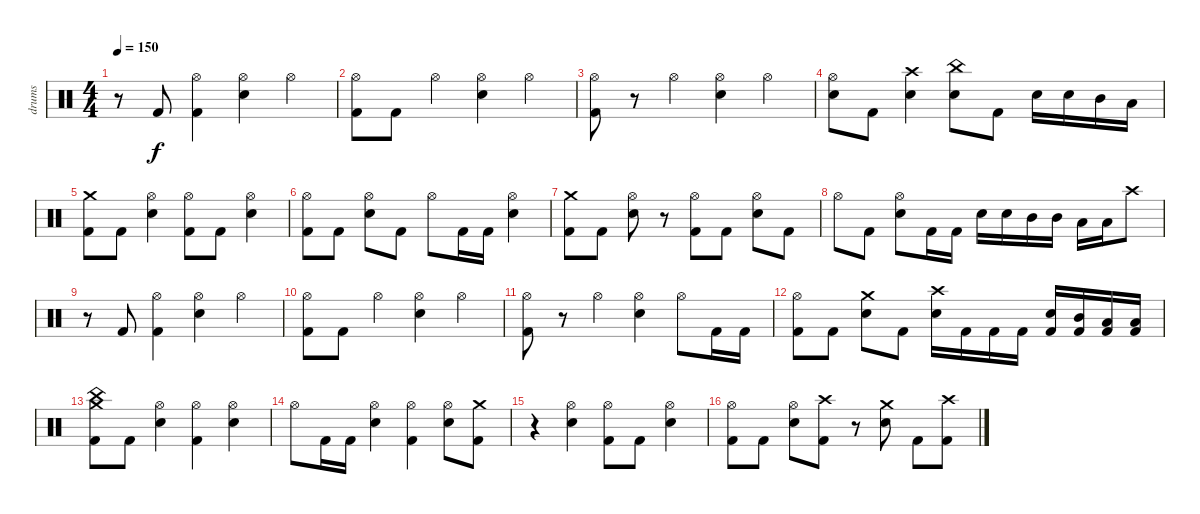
\track ("drums" "drums") {instrument percussion}
\staff {score}
\articulation defaults
\ts (4 4)
\tempo 150
\clef neutral
\ks c
r.8{dy f} "Kick (hit) 2".8 ("Hi-Hat (open)" "Kick (hit) 2").4 ("Hi-Hat (open)" "Electric Snare (hit)").4 "Hi-Hat (open)".4 |
("Hi-Hat (open)" "Kick (hit) 2").8 "Kick (hit) 2".8 "Hi-Hat (open)".4 ("Hi-Hat (open)" "Electric Snare (hit)").4 "Hi-Hat (open)".4 |
("Hi-Hat (open)" "Kick (hit) 2").8 r.8 "Hi-Hat (open)".4 ("Hi-Hat (open)" "Electric Snare (hit)").4 "Hi-Hat (open)".4 |
("Hi-Hat (open)" "Electric Snare (hit)").8 "Kick (hit) 2".8 ("Crash high (hit)" "Electric Snare (hit)").4 ("China (hit)" "Electric Snare (hit)").8 "Kick (hit) 2".8 "Electric Snare (hit)".16 "Electric Snare (hit)".16 "Mid Tom (hit)".16 "Low Tom (hit)".16 |
("Crash medium (hit)" "Kick (hit) 2").8 "Kick (hit) 2".8 ("Hi-Hat (open)" "Electric Snare (hit)").4 ("Hi-Hat (open)" "Kick (hit) 2").8 "Kick (hit) 2".8 ("Hi-Hat (open)" "Electric Snare (hit)").4 |
("Hi-Hat (open)" "Kick (hit) 2").8 "Kick (hit) 2".8 ("Hi-Hat (open)" "Electric Snare (hit)").8 "Kick (hit) 2".8 "Hi-Hat (open)".8 "Kick (hit) 2".16 "Kick (hit) 2".16 ("Hi-Hat (open)" "Electric Snare (hit)").4 |
("Crash medium (hit)" "Kick (hit) 2").8 "Kick (hit) 2".8 ("Hi-Hat (open)" "Electric Snare (hit)").8 r.8 ("Hi-Hat (open)" "Kick (hit) 2").8 "Kick (hit) 2".8 ("Hi-Hat (open)" "Electric Snare (hit)").8 "Kick (hit) 2".8 |
"Hi-Hat (open)".8 "Kick (hit) 2".8 ("Hi-Hat (open)" "Electric Snare (hit)").8 "Kick (hit) 2".16 "Kick (hit) 2".16 "Electric Snare (hit)".16 "Electric Snare (hit)".16 "Mid Tom (hit)".16 "Mid Tom (hit)".16 "Low Tom (hit)".16 "Low Tom (hit)".16 "Crash high (hit)".8 |
r.8 "Kick (hit) 2".8 ("Hi-Hat (open)" "Kick (hit) 2").4 ("Hi-Hat (open)" "Electric Snare (hit)").4 "Hi-Hat (open)".4 |
("Hi-Hat (open)" "Kick (hit) 2").8 "Kick (hit) 2".8 "Hi-Hat (open)".4 ("Hi-Hat (open)" "Electric Snare (hit)").4 "Hi-Hat (open)".4 |
("Hi-Hat (open)" "Kick (hit) 2").8 r.8 "Hi-Hat (open)".4 ("Hi-Hat (open)" "Electric Snare (hit)").4 "Hi-Hat (open)".8 "Kick (hit) 2".16 "Kick (hit) 2".16 |
("Hi-Hat (open)" "Kick (hit) 2").8 "Kick (hit) 2".8 ("Crash medium (hit)" "Electric Snare (hit)").8 "Kick (hit) 2".8 ("Crash high (hit)" "Electric Snare (hit)").16 "Kick (hit) 2".16 "Kick (hit) 2".16 "Kick (hit) 2".16 ("Electric Snare (hit)" "Kick (hit) 2").16 ("Mid Tom (hit)" "Kick (hit) 2").16 ("Low Tom (hit)" "Kick (hit) 2").16 ("Low Tom (hit)" "Kick (hit) 2").16 |
("China (hit)" "Crash medium (hit)" "Kick (hit) 2").8 "Kick (hit) 2".8 ("Hi-Hat (open)" "Electric Snare (hit)").4 ("Hi-Hat (open)" "Kick (hit) 2").4 ("Hi-Hat (open)" "Electric Snare (hit)").4 |
"Hi-Hat (open)".8 "Kick (hit) 2".16 "Kick (hit) 2".16 ("Hi-Hat (open)" "Electric Snare (hit)").4 ("Hi-Hat (open)" "Kick (hit) 2").4 ("Hi-Hat (open)" "Electric Snare (hit)").8 ("Crash medium (hit)" "Kick (hit) 2").8 |
r.4 ("Hi-Hat (open)" "Electric Snare (hit)").4 ("Hi-Hat (open)" "Kick (hit) 2").8 "Kick (hit) 2".8 ("Hi-Hat (open)" "Electric Snare (hit)").4 |
("Hi-Hat (open)" "Kick (hit) 2").8 "Kick (hit) 2".8 ("Hi-Hat (open)" "Electric Snare (hit)").8 ("Crash high (hit)" "Kick (hit) 2").8 r.8 ("Crash medium (hit)" "Electric Snare (hit)").8 "Kick (hit) 2".8 ("Crash high (hit)" "Kick (hit) 2").8
